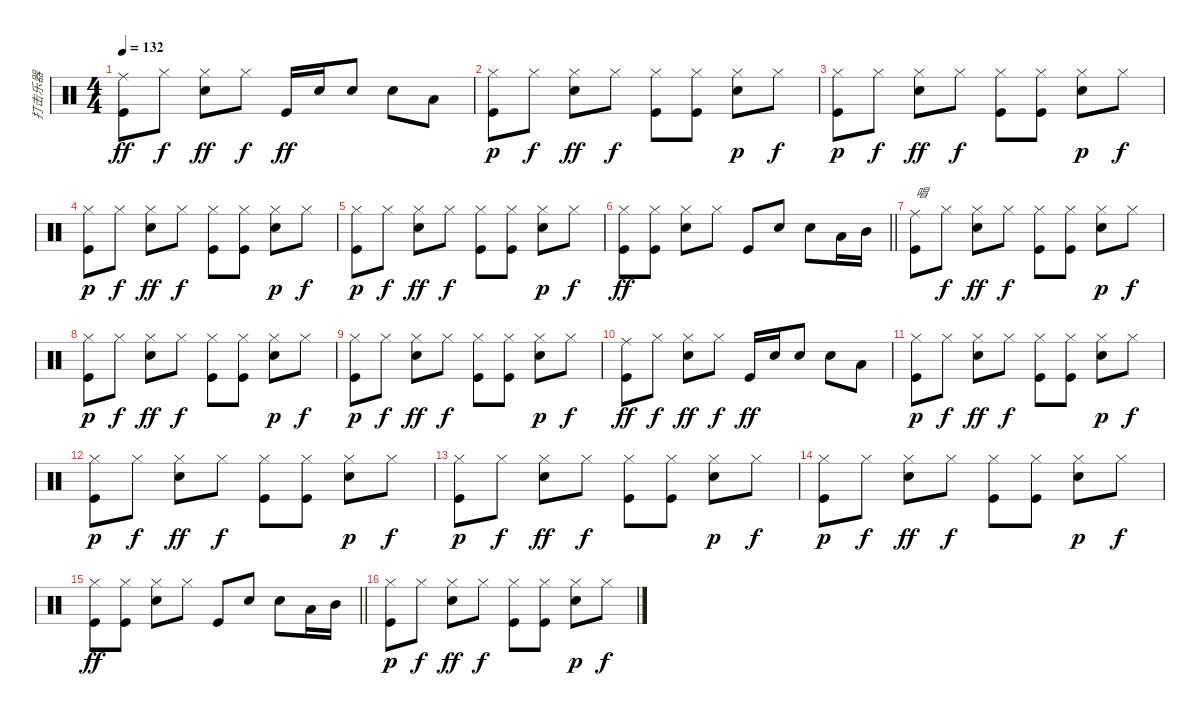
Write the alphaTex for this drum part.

\track ("打击乐器" "打击乐器") {instrument percussion}
\staff {score}
\articulation defaults
\ts (4 4)
\tempo 132
\clef neutral
\ks c
("Ride (middle)" "Kick (hit)").8{dy ff} "Hi-Hat (closed)".8{dy f} ("Hi-Hat (closed)" "Snare (hit) 2").8{dy ff} "Hi-Hat (closed)".8{dy f} "Kick (hit)".16{dy ff} "Snare (hit) 2".16 "Snare (hit) 2".8 "Snare (hit) 2".8 "Low Tom (hit)".8 |
("Hi-Hat (closed)" "Kick (hit)").8{dy p} "Hi-Hat (closed)".8{dy f} ("Hi-Hat (closed)" "Snare (hit) 2").8{dy ff} "Hi-Hat (closed)".8{dy f} ("Hi-Hat (closed)" "Kick (hit)").8 ("Hi-Hat (closed)" "Kick (hit)").8 ("Hi-Hat (closed)" "Snare (hit) 2").8{dy p} "Hi-Hat (closed)".8{dy f} |
("Hi-Hat (closed)" "Kick (hit)").8{dy p} "Hi-Hat (closed)".8{dy f} ("Hi-Hat (closed)" "Snare (hit) 2").8{dy ff} "Hi-Hat (closed)".8{dy f} ("Hi-Hat (closed)" "Kick (hit)").8 ("Hi-Hat (closed)" "Kick (hit)").8 ("Hi-Hat (closed)" "Snare (hit) 2").8{dy p} "Hi-Hat (closed)".8{dy f} |
("Hi-Hat (closed)" "Kick (hit)").8{dy p} "Hi-Hat (closed)".8{dy f} ("Hi-Hat (closed)" "Snare (hit) 2").8{dy ff} "Hi-Hat (closed)".8{dy f} ("Hi-Hat (closed)" "Kick (hit)").8 ("Hi-Hat (closed)" "Kick (hit)").8 ("Hi-Hat (closed)" "Snare (hit) 2").8{dy p} "Hi-Hat (closed)".8{dy f} |
("Hi-Hat (closed)" "Kick (hit)").8{dy p} "Hi-Hat (closed)".8{dy f} ("Hi-Hat (closed)" "Snare (hit) 2").8{dy ff} "Hi-Hat (closed)".8{dy f} ("Hi-Hat (closed)" "Kick (hit)").8 ("Hi-Hat (closed)" "Kick (hit)").8 ("Hi-Hat (closed)" "Snare (hit) 2").8{dy p} "Hi-Hat (closed)".8{dy f} |
\barLineRight lightlight
("Kick (hit)" "Hi-Hat (closed)").8{dy ff} ("Kick (hit)" "Hi-Hat (closed)").8 ("Snare (hit) 2" "Hi-Hat (closed)").8 "Hi-Hat (closed)".8 "Kick (hit)".8 "Snare (hit) 2".8 "Snare (hit) 2".8 "Low Tom (hit)".16 "Mid Tom (hit)".16 |
("Ride (middle)" "Kick (hit)").8{txt "唱"} "Hi-Hat (closed)".8{dy f} ("Hi-Hat (closed)" "Snare (hit) 2").8{dy ff} "Hi-Hat (closed)".8{dy f} ("Hi-Hat (closed)" "Kick (hit)").8 ("Hi-Hat (closed)" "Kick (hit)").8 ("Hi-Hat (closed)" "Snare (hit) 2").8{dy p} "Hi-Hat (closed)".8{dy f} |
("Hi-Hat (closed)" "Kick (hit)").8{dy p} "Hi-Hat (closed)".8{dy f} ("Hi-Hat (closed)" "Snare (hit) 2").8{dy ff} "Hi-Hat (closed)".8{dy f} ("Hi-Hat (closed)" "Kick (hit)").8 ("Hi-Hat (closed)" "Kick (hit)").8 ("Hi-Hat (closed)" "Snare (hit) 2").8{dy p} "Hi-Hat (closed)".8{dy f} |
("Hi-Hat (closed)" "Kick (hit)").8{dy p} "Hi-Hat (closed)".8{dy f} ("Hi-Hat (closed)" "Snare (hit) 2").8{dy ff} "Hi-Hat (closed)".8{dy f} ("Hi-Hat (closed)" "Kick (hit)").8 ("Hi-Hat (closed)" "Kick (hit)").8 ("Hi-Hat (closed)" "Snare (hit) 2").8{dy p} "Hi-Hat (closed)".8{dy f} |
("Ride (middle)" "Kick (hit)").8{dy ff} "Hi-Hat (closed)".8{dy f} ("Hi-Hat (closed)" "Snare (hit) 2").8{dy ff} "Hi-Hat (closed)".8{dy f} "Kick (hit)".16{dy ff} "Snare (hit) 2".16 "Snare (hit) 2".8 "Snare (hit) 2".8 "Low Tom (hit)".8 |
("Hi-Hat (closed)" "Kick (hit)").8{dy p} "Hi-Hat (closed)".8{dy f} ("Hi-Hat (closed)" "Snare (hit) 2").8{dy ff} "Hi-Hat (closed)".8{dy f} ("Hi-Hat (closed)" "Kick (hit)").8 ("Hi-Hat (closed)" "Kick (hit)").8 ("Hi-Hat (closed)" "Snare (hit) 2").8{dy p} "Hi-Hat (closed)".8{dy f} |
("Hi-Hat (closed)" "Kick (hit)").8{dy p} "Hi-Hat (closed)".8{dy f} ("Hi-Hat (closed)" "Snare (hit) 2").8{dy ff} "Hi-Hat (closed)".8{dy f} ("Hi-Hat (closed)" "Kick (hit)").8 ("Hi-Hat (closed)" "Kick (hit)").8 ("Hi-Hat (closed)" "Snare (hit) 2").8{dy p} "Hi-Hat (closed)".8{dy f} |
("Hi-Hat (closed)" "Kick (hit)").8{dy p} "Hi-Hat (closed)".8{dy f} ("Hi-Hat (closed)" "Snare (hit) 2").8{dy ff} "Hi-Hat (closed)".8{dy f} ("Hi-Hat (closed)" "Kick (hit)").8 ("Hi-Hat (closed)" "Kick (hit)").8 ("Hi-Hat (closed)" "Snare (hit) 2").8{dy p} "Hi-Hat (closed)".8{dy f} |
("Hi-Hat (closed)" "Kick (hit)").8{dy p} "Hi-Hat (closed)".8{dy f} ("Hi-Hat (closed)" "Snare (hit) 2").8{dy ff} "Hi-Hat (closed)".8{dy f} ("Hi-Hat (closed)" "Kick (hit)").8 ("Hi-Hat (closed)" "Kick (hit)").8 ("Hi-Hat (closed)" "Snare (hit) 2").8{dy p} "Hi-Hat (closed)".8{dy f} |
\barLineRight lightlight
("Kick (hit)" "Hi-Hat (closed)").8{dy ff} ("Kick (hit)" "Hi-Hat (closed)").8 ("Snare (hit) 2" "Hi-Hat (closed)").8 "Hi-Hat (closed)".8 "Kick (hit)".8 "Snare (hit) 2".8 "Snare (hit) 2".8 "Low Tom (hit)".16 "Mid Tom (hit)".16 |
("Hi-Hat (closed)" "Kick (hit)").8{dy p} "Hi-Hat (closed)".8{dy f} ("Hi-Hat (closed)" "Snare (hit) 2").8{dy ff} "Hi-Hat (closed)".8{dy f} ("Hi-Hat (closed)" "Kick (hit)").8 ("Hi-Hat (closed)" "Kick (hit)").8 ("Hi-Hat (closed)" "Snare (hit) 2").8{dy p} "Hi-Hat (closed)".8{dy f}
